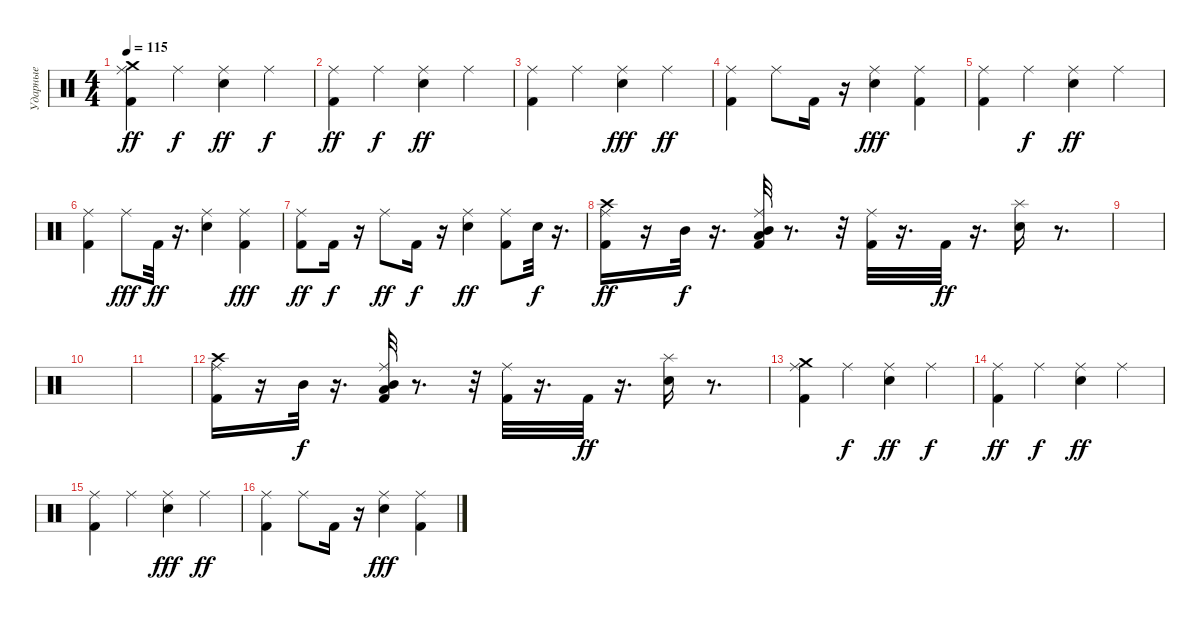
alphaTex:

\track ("Ударные" "Ударные") {instrument percussion}
\staff {score}
\articulation defaults
\ts (4 4)
\tempo 115
\clef neutral
\ks c
("Kick (hit) 2" "Ride (middle)" "Crash medium (hit)").4{dy ff} "Ride (middle)".4{dy f} ("Snare (hit) 2" "Ride (middle)").4{dy ff} "Ride (middle)".4{dy f} |
("Kick (hit) 2" "Ride (middle)").4{dy ff} "Ride (middle)".4{dy f} ("Snare (hit) 2" "Ride (middle)").4{dy ff} "Ride (middle)".4 |
("Kick (hit) 2" "Ride (middle)").4 "Ride (middle)".4 ("Snare (hit) 2" "Ride (middle)").4{dy fff} "Ride (middle)".4{dy ff} |
("Kick (hit) 2" "Ride (middle)").4 "Ride (middle)".8 "Kick (hit) 2".16 r.16 ("Snare (hit) 2" "Ride (middle)").4{dy fff} ("Kick (hit) 2" "Ride (middle)").4 |
("Kick (hit) 2" "Ride (middle)").4 "Ride (middle)".4{dy f} ("Ride (middle)" "Snare (hit) 2").4{dy ff} "Ride (middle)".4 |
("Kick (hit) 2" "Ride (middle)").4 "Ride (middle)".8{dy fff} "Kick (hit) 2".32{dy ff} r.16{d} ("Snare (hit) 2" "Ride (middle)").4 ("Kick (hit) 2" "Ride (middle)").4{dy fff} |
("Kick (hit) 2" "Ride (middle)").8{dy ff} "Kick (hit) 2".16{dy f} r.16 "Ride (middle)".8{dy ff} "Kick (hit) 2".16{dy f} r.16 ("Snare (hit) 2" "Ride (middle)").4{dy ff} ("Kick (hit) 2" "Ride (middle)").8 "Snare (hit) 2".32{dy f} r.16{d} |
("Crash high (hit)" "Ride (middle)" "Kick (hit) 2").16{dy ff} r.16 "Mid Tom (hit)".32{dy f} r.16{d} ("Ride (middle)" "Low Tom (hit)" "Mid Tom (hit)" "Kick (hit) 2").32 r.8{d} r.32 ("Ride (middle)" "Kick (hit) 2").32 r.16{d} "Kick (hit) 2".32{dy ff} r.16{d} ("Splash (hit)" "Snare (hit) 2").16 r.8{d} |
|
|
|
("Crash high (hit)" "Ride (middle)" "Kick (hit) 2").16 r.16 "Mid Tom (hit)".32{dy f} r.16{d} ("Ride (middle)" "Low Tom (hit)" "Mid Tom (hit)" "Kick (hit) 2").32 r.8{d} r.32 ("Ride (middle)" "Kick (hit) 2").32 r.16{d} "Kick (hit) 2".32{dy ff} r.16{d} ("Splash (hit)" "Snare (hit) 2").16 r.8{d} |
("Kick (hit) 2" "Ride (middle)" "Crash medium (hit)").4 "Ride (middle)".4{dy f} ("Snare (hit) 2" "Ride (middle)").4{dy ff} "Ride (middle)".4{dy f} |
("Kick (hit) 2" "Ride (middle)").4{dy ff} "Ride (middle)".4{dy f} ("Snare (hit) 2" "Ride (middle)").4{dy ff} "Ride (middle)".4 |
("Kick (hit) 2" "Ride (middle)").4 "Ride (middle)".4 ("Snare (hit) 2" "Ride (middle)").4{dy fff} "Ride (middle)".4{dy ff} |
("Kick (hit) 2" "Ride (middle)").4 "Ride (middle)".8 "Kick (hit) 2".16 r.16 ("Snare (hit) 2" "Ride (middle)").4{dy fff} ("Kick (hit) 2" "Ride (middle)").4
